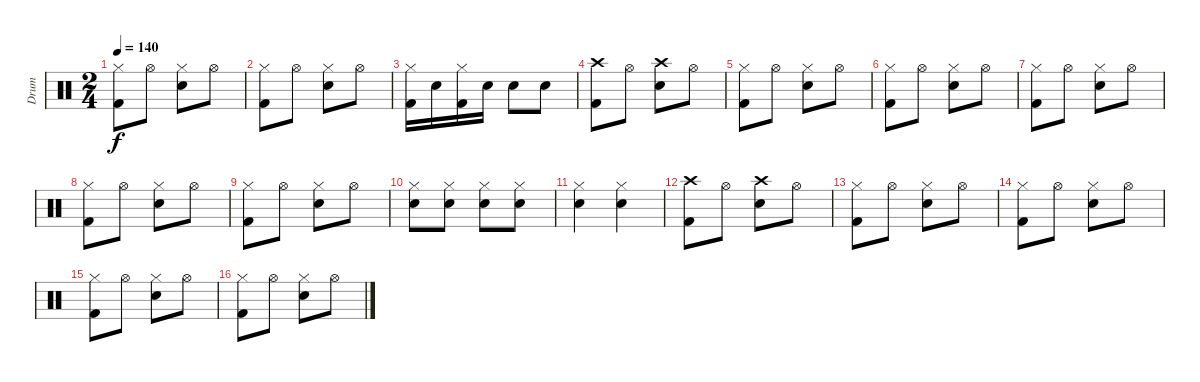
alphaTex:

\track ("Drum" "Drum") {instrument percussion}
\staff {score}
\articulation defaults
\ts (2 4)
\tempo 140
\clef neutral
\ks c
("Hi-Hat (closed)" "Kick (hit) 2").8{dy f} "Hi-Hat (open)".8 ("Hi-Hat (closed)" "Electric Snare (hit)").8 "Hi-Hat (open)".8 |
("Hi-Hat (closed)" "Kick (hit) 2").8 "Hi-Hat (open)".8 ("Hi-Hat (closed)" "Electric Snare (hit)").8 "Hi-Hat (open)".8 |
("Hi-Hat (closed)" "Kick (hit) 2").16 "Electric Snare (hit)".16 ("Hi-Hat (closed)" "Kick (hit) 2").16 "Electric Snare (hit)".16 "Electric Snare (hit)".8 "Electric Snare (hit)".8 |
("Crash high (hit)" "Kick (hit) 2").8 "Hi-Hat (open)".8 ("Crash high (hit)" "Electric Snare (hit)").8 "Hi-Hat (open)".8 |
("Kick (hit) 2" "Hi-Hat (closed)").8 "Hi-Hat (open)".8 ("Hi-Hat (closed)" "Electric Snare (hit)").8 "Hi-Hat (open)".8 |
("Kick (hit) 2" "Hi-Hat (closed)").8 "Hi-Hat (open)".8 ("Hi-Hat (closed)" "Electric Snare (hit)").8 "Hi-Hat (open)".8 |
("Kick (hit) 2" "Hi-Hat (closed)").8 "Hi-Hat (open)".8 ("Hi-Hat (closed)" "Electric Snare (hit)").8 "Hi-Hat (open)".8 |
("Kick (hit) 2" "Hi-Hat (closed)").8 "Hi-Hat (open)".8 ("Hi-Hat (closed)" "Electric Snare (hit)").8 "Hi-Hat (open)".8 |
("Hi-Hat (closed)" "Kick (hit) 2").8 "Hi-Hat (open)".8 ("Hi-Hat (closed)" "Electric Snare (hit)").8 "Hi-Hat (open)".8 |
("Electric Snare (hit)" "Hi-Hat (closed)").8 ("Electric Snare (hit)" "Hi-Hat (closed)").8 ("Electric Snare (hit)" "Hi-Hat (closed)").8 ("Electric Snare (hit)" "Hi-Hat (closed)").8 |
("Electric Snare (hit)" "Hi-Hat (closed)").4 ("Electric Snare (hit)" "Hi-Hat (closed)").4 |
("Crash high (hit)" "Kick (hit) 2").8 "Hi-Hat (open)".8 ("Crash high (hit)" "Electric Snare (hit)").8 "Hi-Hat (open)".8 |
("Kick (hit) 2" "Hi-Hat (closed)").8 "Hi-Hat (open)".8 ("Hi-Hat (closed)" "Electric Snare (hit)").8 "Hi-Hat (open)".8 |
("Kick (hit) 2" "Hi-Hat (closed)").8 "Hi-Hat (open)".8 ("Hi-Hat (closed)" "Electric Snare (hit)").8 "Hi-Hat (open)".8 |
("Kick (hit) 2" "Hi-Hat (closed)").8 "Hi-Hat (open)".8 ("Hi-Hat (closed)" "Electric Snare (hit)").8 "Hi-Hat (open)".8 |
("Kick (hit) 2" "Hi-Hat (closed)").8 "Hi-Hat (open)".8 ("Hi-Hat (closed)" "Electric Snare (hit)").8 "Hi-Hat (open)".8
